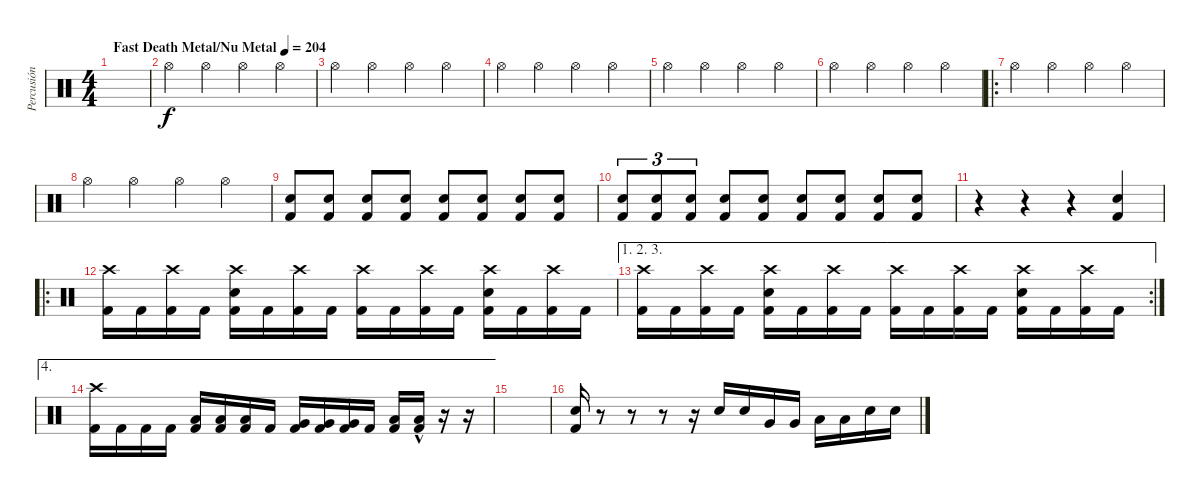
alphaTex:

\track ("Percusión" "Percusión") {instrument percussion}
\staff {score}
\articulation defaults
\ts (4 4)
\tempo (204 "Fast Death Metal/Nu Metal")
\clef neutral
\ks c
|
"Hi-Hat (open)".4 "Hi-Hat (open)".4 "Hi-Hat (open)".4 "Hi-Hat (open)".4 |
"Hi-Hat (open)".4 "Hi-Hat (open)".4 "Hi-Hat (open)".4 "Hi-Hat (open)".4 |
"Hi-Hat (open)".4 "Hi-Hat (open)".4 "Hi-Hat (open)".4 "Hi-Hat (open)".4 |
"Hi-Hat (open)".4 "Hi-Hat (open)".4 "Hi-Hat (open)".4 "Hi-Hat (open)".4 |
"Hi-Hat (open)".4 "Hi-Hat (open)".4 "Hi-Hat (open)".4 "Hi-Hat (open)".4 |
\ro "Hi-Hat (open)".4 "Hi-Hat (open)".4 "Hi-Hat (open)".4 "Hi-Hat (open)".4
|
"Hi-Hat (open)".4 "Hi-Hat (open)".4 "Hi-Hat (open)".4 "Hi-Hat (open)".4 |
("Snare (hit) 2" "Kick (hit) 2").8 ("Snare (hit) 2" "Kick (hit) 2").8 ("Snare (hit) 2" "Kick (hit) 2").8 ("Snare (hit) 2" "Kick (hit) 2").8 ("Snare (hit) 2" "Kick (hit) 2").8 ("Snare (hit) 2" "Kick (hit) 2").8 ("Snare (hit) 2" "Kick (hit) 2").8 ("Snare (hit) 2" "Kick (hit) 2").8 |
("Snare (hit) 2" "Kick (hit) 2").8{tu (3 2)} ("Snare (hit) 2" "Kick (hit) 2").8{tu (3 2)} ("Snare (hit) 2" "Kick (hit) 2").8{tu (3 2)} ("Snare (hit) 2" "Kick (hit) 2").8 ("Snare (hit) 2" "Kick (hit) 2").8 ("Snare (hit) 2" "Kick (hit) 2").8 ("Snare (hit) 2" "Kick (hit) 2").8 ("Snare (hit) 2" "Kick (hit) 2").8 ("Snare (hit) 2" "Kick (hit) 2").8 |
r.4 r.4 r.4 ("Snare (hit) 2" "Kick (hit) 2").4 |
\ro
("Crash high (hit)" "Kick (hit) 2").16 "Kick (hit) 2".16 ("Crash high (hit)" "Kick (hit) 2").16 "Kick (hit) 2".16 ("Crash high (hit)" "Snare (hit) 2" "Kick (hit) 2").16 "Kick (hit) 2".16 ("Crash high (hit)" "Kick (hit) 2").16 "Kick (hit) 2".16 ("Crash high (hit)" "Kick (hit) 2").16 "Kick (hit) 2".16 ("Crash high (hit)" "Kick (hit) 2").16 "Kick (hit) 2".16 ("Crash high (hit)" "Snare (hit) 2" "Kick (hit) 2").16 "Kick (hit) 2".16 ("Crash high (hit)" "Kick (hit) 2").16 "Kick (hit) 2".16 |
\ae (1 2 3)
\rc 2
("Crash high (hit)" "Kick (hit) 2").16 "Kick (hit) 2".16 ("Crash high (hit)" "Kick (hit) 2").16 "Kick (hit) 2".16 ("Crash high (hit)" "Snare (hit) 2" "Kick (hit) 2").16 "Kick (hit) 2".16 ("Crash high (hit)" "Kick (hit) 2").16 "Kick (hit) 2".16 ("Crash high (hit)" "Kick (hit) 2").16 "Kick (hit) 2".16 ("Crash high (hit)" "Kick (hit) 2").16 "Kick (hit) 2".16 ("Crash high (hit)" "Snare (hit) 2" "Kick (hit) 2").16 "Kick (hit) 2".16 ("Crash high (hit)" "Kick (hit) 2").16 "Kick (hit) 2".16 |
\ae 4
("Crash high (hit)" "Kick (hit) 2").16 "Kick (hit) 2".16 "Kick (hit) 2".16 "Kick (hit) 2".16 ("Low Floor Tom (hit)" "Kick (hit) 2").16 ("Low Floor Tom (hit)" "Kick (hit) 2").16 ("Low Floor Tom (hit)" "Kick (hit) 2").16 "Kick (hit) 2".16 ("Very Low Tom (hit)" "Kick (hit) 2").16 ("Very Low Tom (hit)" "Kick (hit) 2").16 ("Very Low Tom (hit)" "Kick (hit) 2").16 "Kick (hit) 2".16 ("Low Tom (hit)" "Kick (hit) 2").16 ("Low Tom (hit)"{hac} "Kick (hit) 2").16 r.16 r.16 |
|
("Snare (hit) 2" "Kick (hit) 2").16 r.8 r.8 r.8 r.16 "Snare (hit) 2".16 "Snare (hit) 2".16 "Very Low Tom (hit)".16 "Very Low Tom (hit)".16 "Low Floor Tom (hit)".16 "Low Floor Tom (hit)".16 "Snare (hit) 2".16 "Snare (hit) 2".16{dy f}
